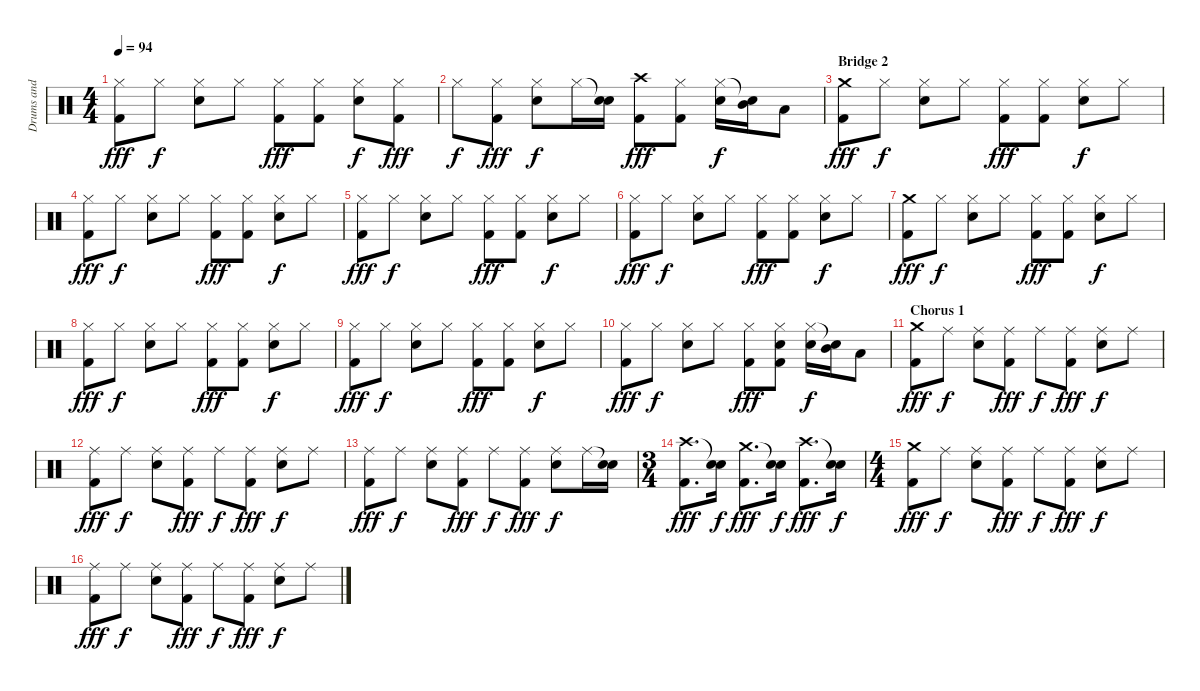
\track ("Drums and Percussion" "Drums and ") {instrument percussion}
\staff {score}
\articulation defaults
\ts (4 4)
\tempo 94
\clef neutral
\ks c
("Hi-Hat (closed)" "Kick (hit) 2").8{dy fff} "Hi-Hat (closed)".8{dy f} ("Hi-Hat (closed)" "Snare (hit) 2").8 "Hi-Hat (closed)".8 ("Hi-Hat (closed)" "Kick (hit) 2").8{dy fff} ("Hi-Hat (closed)" "Kick (hit) 2").8 ("Hi-Hat (closed)" "Snare (hit) 2").8{dy f} ("Hi-Hat (closed)" "Kick (hit) 2").8{dy fff} |
"Hi-Hat (closed)".8{dy f} ("Hi-Hat (closed)" "Kick (hit) 2").8{dy fff} ("Hi-Hat (closed)" "Snare (hit) 2").8{dy f} "Hi-Hat (closed)".16 ("Snare (hit)"{t} "Snare (hit) 2").16 ("Crash high (hit)" "Kick (hit) 2").8{dy fff} ("Hi-Hat (closed)" "Kick (hit) 2").8 ("Hi-Hat (closed)" "Snare (hit) 2").16{dy f} ("Snare (hit)"{t} "Mid Tom (hit)").16 "Low Tom (hit)".8 |
\section ("" "Bridge 2")
("Crash medium (hit)" "Kick (hit) 2").8{dy fff} "Hi-Hat (closed)".8{dy f} ("Hi-Hat (closed)" "Snare (hit) 2").8 "Hi-Hat (closed)".8 ("Hi-Hat (closed)" "Kick (hit) 2").8{dy fff} ("Hi-Hat (closed)" "Kick (hit) 2").8 ("Hi-Hat (closed)" "Snare (hit) 2").8{dy f} "Hi-Hat (closed)".8 |
("Hi-Hat (closed)" "Kick (hit) 2").8{dy fff} "Hi-Hat (closed)".8{dy f} ("Hi-Hat (closed)" "Snare (hit) 2").8 "Hi-Hat (closed)".8 ("Hi-Hat (closed)" "Kick (hit) 2").8{dy fff} ("Hi-Hat (closed)" "Kick (hit) 2").8 ("Hi-Hat (closed)" "Snare (hit) 2").8{dy f} "Hi-Hat (closed)".8 |
("Hi-Hat (closed)" "Kick (hit) 2").8{dy fff} "Hi-Hat (closed)".8{dy f} ("Hi-Hat (closed)" "Snare (hit) 2").8 "Hi-Hat (closed)".8 ("Hi-Hat (closed)" "Kick (hit) 2").8{dy fff} ("Hi-Hat (closed)" "Kick (hit) 2").8 ("Hi-Hat (closed)" "Snare (hit) 2").8{dy f} "Hi-Hat (closed)".8 |
("Hi-Hat (closed)" "Kick (hit) 2").8{dy fff} "Hi-Hat (closed)".8{dy f} ("Hi-Hat (closed)" "Snare (hit) 2").8 "Hi-Hat (closed)".8 ("Hi-Hat (closed)" "Kick (hit) 2").8{dy fff} ("Hi-Hat (closed)" "Kick (hit) 2").8 ("Hi-Hat (closed)" "Snare (hit) 2").8{dy f} "Hi-Hat (closed)".8 |
("Crash medium (hit)" "Kick (hit) 2").8{dy fff} "Hi-Hat (closed)".8{dy f} ("Hi-Hat (closed)" "Snare (hit) 2").8 "Hi-Hat (closed)".8 ("Hi-Hat (closed)" "Kick (hit) 2").8{dy fff} ("Hi-Hat (closed)" "Kick (hit) 2").8 ("Hi-Hat (closed)" "Snare (hit) 2").8{dy f} "Hi-Hat (closed)".8 |
("Hi-Hat (closed)" "Kick (hit) 2").8{dy fff} "Hi-Hat (closed)".8{dy f} ("Hi-Hat (closed)" "Snare (hit) 2").8 "Hi-Hat (closed)".8 ("Hi-Hat (closed)" "Kick (hit) 2").8{dy fff} ("Hi-Hat (closed)" "Kick (hit) 2").8 ("Hi-Hat (closed)" "Snare (hit) 2").8{dy f} "Hi-Hat (closed)".8 |
("Hi-Hat (closed)" "Kick (hit) 2").8{dy fff} "Hi-Hat (closed)".8{dy f} ("Hi-Hat (closed)" "Snare (hit) 2").8 "Hi-Hat (closed)".8 ("Hi-Hat (closed)" "Kick (hit) 2").8{dy fff} ("Hi-Hat (closed)" "Kick (hit) 2").8 ("Hi-Hat (closed)" "Snare (hit) 2").8{dy f} "Hi-Hat (closed)".8 |
("Hi-Hat (closed)" "Kick (hit) 2").8{dy fff} "Hi-Hat (closed)".8{dy f} ("Hi-Hat (closed)" "Snare (hit) 2").8 "Hi-Hat (closed)".8 ("Hi-Hat (closed)" "Kick (hit) 2").8{dy fff} ("Hi-Hat (closed)" "Snare (hit) 2" "Kick (hit) 2").8 ("Hi-Hat (closed)" "Snare (hit) 2").16{dy f} ("Snare (hit)"{t} "Mid Tom (hit)").16 "Low Tom (hit)".8 |
\section ("" "Chorus 1")
("Crash medium (hit)" "Kick (hit) 2").8{dy fff} "Ride (middle)".8{dy f} ("Ride (middle)" "Snare (hit) 2").8 ("Ride (middle)" "Kick (hit) 2").8{dy fff} "Ride (middle)".8{dy f} ("Ride (middle)" "Kick (hit) 2").8{dy fff} ("Ride (middle)" "Snare (hit) 2").8{dy f} "Ride (middle)".8 |
("Ride (middle)" "Kick (hit) 2").8{dy fff} "Ride (middle)".8{dy f} ("Ride (middle)" "Snare (hit) 2").8 ("Ride (middle)" "Kick (hit) 2").8{dy fff} "Ride (middle)".8{dy f} ("Ride (middle)" "Kick (hit) 2").8{dy fff} ("Ride (middle)" "Snare (hit) 2").8{dy f} "Ride (middle)".8 |
("Ride (middle)" "Kick (hit) 2").8{dy fff} "Ride (middle)".8{dy f} ("Ride (middle)" "Snare (hit) 2").8 ("Ride (middle)" "Kick (hit) 2").8{dy fff} "Ride (middle)".8{dy f} ("Ride (middle)" "Kick (hit) 2").8{dy fff} ("Ride (middle)" "Snare (hit) 2").8{dy f} "Ride (middle)".16 ("Snare (hit)"{t} "Snare (hit) 2").16 |
\ts (3 4)
("Crash high (hit)" "Kick (hit) 2").8{d dy fff} ("Snare (hit)"{t} "Snare (hit) 2").16{dy f} ("Crash medium (hit)" "Kick (hit) 2").8{d dy fff} ("Snare (hit)"{t} "Snare (hit) 2").16{dy f} ("Crash high (hit)" "Kick (hit) 2").8{d dy fff} ("Snare (hit)"{t} "Snare (hit) 2").16{dy f} |
\ts (4 4)
("Crash medium (hit)" "Kick (hit) 2").8{dy fff} "Ride (middle)".8{dy f} ("Ride (middle)" "Snare (hit) 2").8 ("Ride (middle)" "Kick (hit) 2").8{dy fff} "Ride (middle)".8{dy f} ("Ride (middle)" "Kick (hit) 2").8{dy fff} ("Ride (middle)" "Snare (hit) 2").8{dy f} "Ride (middle)".8 |
("Ride (middle)" "Kick (hit) 2").8{dy fff} "Ride (middle)".8{dy f} ("Ride (middle)" "Snare (hit) 2").8 ("Ride (middle)" "Kick (hit) 2").8{dy fff} "Ride (middle)".8{dy f} ("Ride (middle)" "Kick (hit) 2").8{dy fff} ("Ride (middle)" "Snare (hit) 2").8{dy f} "Ride (middle)".8
